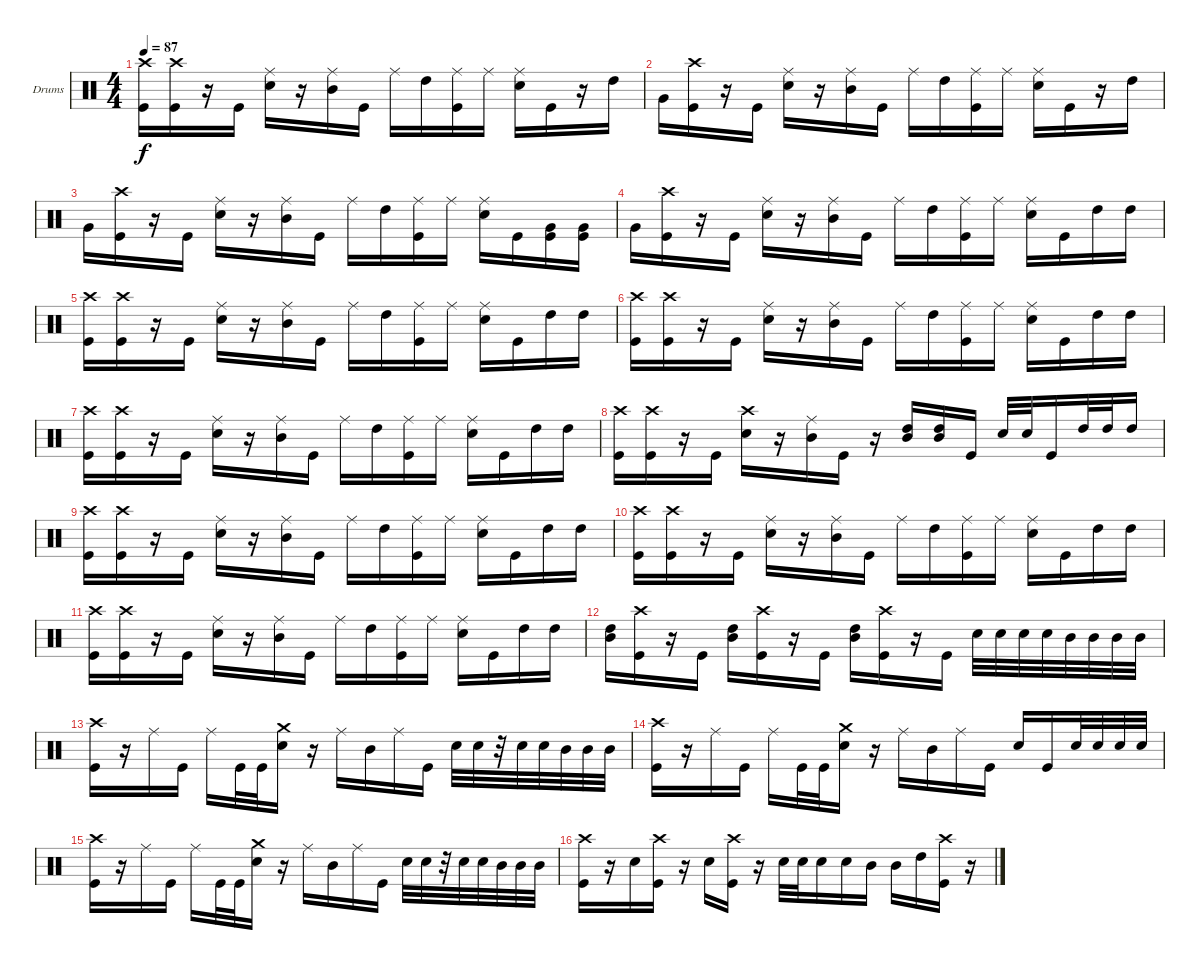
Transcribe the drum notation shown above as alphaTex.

\bracketExtendMode groupsimilarinstruments
\firstSystemTrackNameOrientation horizontal
\otherSystemsTrackNameOrientation horizontal
\track ("Drumkit" "Drums") {instrument percussion}
\staff {score}
\articulation defaults
\ts (4 4)
\tempo 87
\clef neutral
\ks c
("Crash high (hit)" "Kick (hit)").16{dy f} ("Crash high (hit)" "Kick (hit)").16 r.16 "Kick (hit)".16 ("Ride (middle)" "Snare (hit) 2").16 r.16 ("Ride (middle)" "Mid Tom (hit)").16 "Kick (hit)".16 "Ride (middle)".16 "High Tom (hit)".16 ("Ride (middle)" "Kick (hit)").16 "Ride (middle)".16 ("Ride (middle)" "Snare (hit) 2").16 "Kick (hit)".16 r.16 "High Tom (hit)".16 |
"Very Low Tom (hit)".16 ("Crash high (hit)" "Kick (hit)").16 r.16 "Kick (hit)".16 ("Ride (middle)" "Snare (hit) 2").16 r.16 ("Ride (middle)" "Mid Tom (hit)").16 "Kick (hit)".16 "Ride (middle)".16 "High Tom (hit)".16 ("Ride (middle)" "Kick (hit)").16 "Ride (middle)".16 ("Ride (middle)" "Snare (hit) 2").16 "Kick (hit)".16 r.16 "High Tom (hit)".16 |
"Very Low Tom (hit)".16 ("Crash high (hit)" "Kick (hit)").16 r.16 "Kick (hit)".16 ("Ride (middle)" "Snare (hit) 2").16 r.16 ("Ride (middle)" "Mid Tom (hit)").16 "Kick (hit)".16 "Ride (middle)".16 "High Tom (hit)".16 ("Ride (middle)" "Kick (hit)").16 "Ride (middle)".16 ("Ride (middle)" "Snare (hit) 2").16 "Kick (hit)".16 ("Very Low Tom (hit)" "Kick (hit)").16 ("Very Low Tom (hit)" "Kick (hit)").16 |
"Very Low Tom (hit)".16 ("Crash high (hit)" "Kick (hit)").16 r.16 "Kick (hit)".16 ("Ride (middle)" "Snare (hit) 2").16 r.16 ("Ride (middle)" "Mid Tom (hit)").16 "Kick (hit)".16 "Ride (middle)".16 "High Tom (hit)".16 ("Ride (middle)" "Kick (hit)").16 "Ride (middle)".16 ("Ride (middle)" "Snare (hit) 2").16 "Kick (hit)".16 "High Tom (hit)".16 "High Tom (hit)".16 |
("Crash high (hit)" "Kick (hit)").16 ("Crash high (hit)" "Kick (hit)").16 r.16 "Kick (hit)".16 ("Ride (middle)" "Snare (hit) 2").16 r.16 ("Ride (middle)" "Mid Tom (hit)").16 "Kick (hit)".16 "Ride (middle)".16 "High Tom (hit)".16 ("Ride (middle)" "Kick (hit)").16 "Ride (middle)".16 ("Ride (middle)" "Snare (hit) 2").16 "Kick (hit)".16 "High Tom (hit)".16 "High Tom (hit)".16 |
("Crash high (hit)" "Kick (hit)").16 ("Crash high (hit)" "Kick (hit)").16 r.16 "Kick (hit)".16 ("Ride (middle)" "Snare (hit) 2").16 r.16 ("Ride (middle)" "Mid Tom (hit)").16 "Kick (hit)".16 "Ride (middle)".16 "High Tom (hit)".16 ("Ride (middle)" "Kick (hit)").16 "Ride (middle)".16 ("Ride (middle)" "Snare (hit) 2").16 "Kick (hit)".16 "High Tom (hit)".16 "High Tom (hit)".16 |
("Crash high (hit)" "Kick (hit)").16 ("Crash high (hit)" "Kick (hit)").16 r.16 "Kick (hit)".16 ("Ride (middle)" "Snare (hit) 2").16 r.16 ("Ride (middle)" "Mid Tom (hit)").16 "Kick (hit)".16 "Ride (middle)".16 "High Tom (hit)".16 ("Ride (middle)" "Kick (hit)").16 "Ride (middle)".16 ("Ride (middle)" "Snare (hit) 2").16 "Kick (hit)".16 "High Tom (hit)".16 "High Tom (hit)".16 |
("Crash high (hit)" "Kick (hit)").16 ("Crash high (hit)" "Kick (hit)").16 r.16 "Kick (hit)".16 ("Crash high (hit)" "Snare (hit) 2").16 r.16 ("Ride (middle)" "Mid Tom (hit)").16 "Kick (hit)".16 r.16 ("High Tom (hit)" "Mid Tom (hit)").16 ("High Tom (hit)" "Mid Tom (hit)").16 "Kick (hit)".16 "Snare (hit) 2".32 "Snare (hit) 2".32 "Kick (hit)".16 "High Tom (hit)".32 "High Tom (hit)".32 "High Tom (hit)".16 |
("Crash high (hit)" "Kick (hit)").16 ("Crash high (hit)" "Kick (hit)").16 r.16 "Kick (hit)".16 ("Ride (middle)" "Snare (hit) 2").16 r.16 ("Ride (middle)" "Mid Tom (hit)").16 "Kick (hit)".16 "Ride (middle)".16 "High Tom (hit)".16 ("Ride (middle)" "Kick (hit)").16 "Ride (middle)".16 ("Ride (middle)" "Snare (hit) 2").16 "Kick (hit)".16 "High Tom (hit)".16 "High Tom (hit)".16 |
("Crash high (hit)" "Kick (hit)").16 ("Crash high (hit)" "Kick (hit)").16 r.16 "Kick (hit)".16 ("Ride (middle)" "Snare (hit) 2").16 r.16 ("Ride (middle)" "Mid Tom (hit)").16 "Kick (hit)".16 "Ride (middle)".16 "High Tom (hit)".16 ("Ride (middle)" "Kick (hit)").16 "Ride (middle)".16 ("Ride (middle)" "Snare (hit) 2").16 "Kick (hit)".16 "High Tom (hit)".16 "High Tom (hit)".16 |
("Crash high (hit)" "Kick (hit)").16 ("Crash high (hit)" "Kick (hit)").16 r.16 "Kick (hit)".16 ("Ride (middle)" "Snare (hit) 2").16 r.16 ("Ride (middle)" "Mid Tom (hit)").16 "Kick (hit)".16 "Ride (middle)".16 "High Tom (hit)".16 ("Ride (middle)" "Kick (hit)").16 "Ride (middle)".16 ("Ride (middle)" "Snare (hit) 2").16 "Kick (hit)".16 "High Tom (hit)".16 "High Tom (hit)".16 |
("High Tom (hit)" "Mid Tom (hit)").16 ("Crash high (hit)" "Kick (hit)").16 r.16 "Kick (hit)".16 ("High Tom (hit)" "Mid Tom (hit)").16 ("Crash high (hit)" "Kick (hit)").16 r.16 "Kick (hit)".16 ("High Tom (hit)" "Mid Tom (hit)").16 ("Crash high (hit)" "Kick (hit)").16 r.16 "Kick (hit)".16 "Snare (hit) 2".32 "Snare (hit) 2".32 "Snare (hit) 2".32 "Snare (hit) 2".32 "Mid Tom (hit)".32 "Mid Tom (hit)".32 "Mid Tom (hit)".32 "Mid Tom (hit)".32 |
("Crash high (hit)" "Kick (hit)").16 r.16 "Ride (middle)".16 "Kick (hit)".16 "Ride (middle)".16 "Kick (hit)".32 "Kick (hit)".32 ("Crash medium (hit)" "Snare (hit) 2").16 r.16 "Ride (middle)".16 "Mid Tom (hit)".16 "Ride (middle)".16 "Kick (hit)".16 "Snare (hit) 2".32 "Snare (hit) 2".32 r.32 "Snare (hit) 2".32 "Snare (hit) 2".32 "Mid Tom (hit)".32 "Mid Tom (hit)".32 "Mid Tom (hit)".32 |
("Crash high (hit)" "Kick (hit)").16 r.16 "Ride (middle)".16 "Kick (hit)".16 "Ride (middle)".16 "Kick (hit)".32 "Kick (hit)".32 ("Crash medium (hit)" "Snare (hit) 2").16 r.16 "Ride (middle)".16 "Mid Tom (hit)".16 "Ride (middle)".16 "Kick (hit)".16 "Snare (hit) 2".16 "Kick (hit)".16 "Snare (hit) 2".32 "Snare (hit) 2".32 "Snare (hit) 2".32 "Snare (hit) 2".32 |
("Crash high (hit)" "Kick (hit)").16 r.16 "Ride (middle)".16 "Kick (hit)".16 "Ride (middle)".16 "Kick (hit)".32 "Kick (hit)".32 ("Crash medium (hit)" "Snare (hit) 2").16 r.16 "Ride (middle)".16 "Mid Tom (hit)".16 "Ride (middle)".16 "Kick (hit)".16 "Snare (hit) 2".32 "Snare (hit) 2".32 r.32 "Snare (hit) 2".32 "Snare (hit) 2".32 "Mid Tom (hit)".32 "Mid Tom (hit)".32 "Mid Tom (hit)".32 |
("Crash high (hit)" "Kick (hit)").16 r.16 "Snare (hit) 2".16 ("Crash high (hit)" "Kick (hit)").16 r.16 "Snare (hit) 2".16 ("Crash high (hit)" "Kick (hit)").16 r.16 "Snare (hit) 2".32 "Snare (hit) 2".32 "Snare (hit) 2".16 "Snare (hit) 2".16 "Mid Tom (hit)".16 "Mid Tom (hit)".16 "High Tom (hit)".16 ("Crash high (hit)" "Kick (hit)").16 r.16
